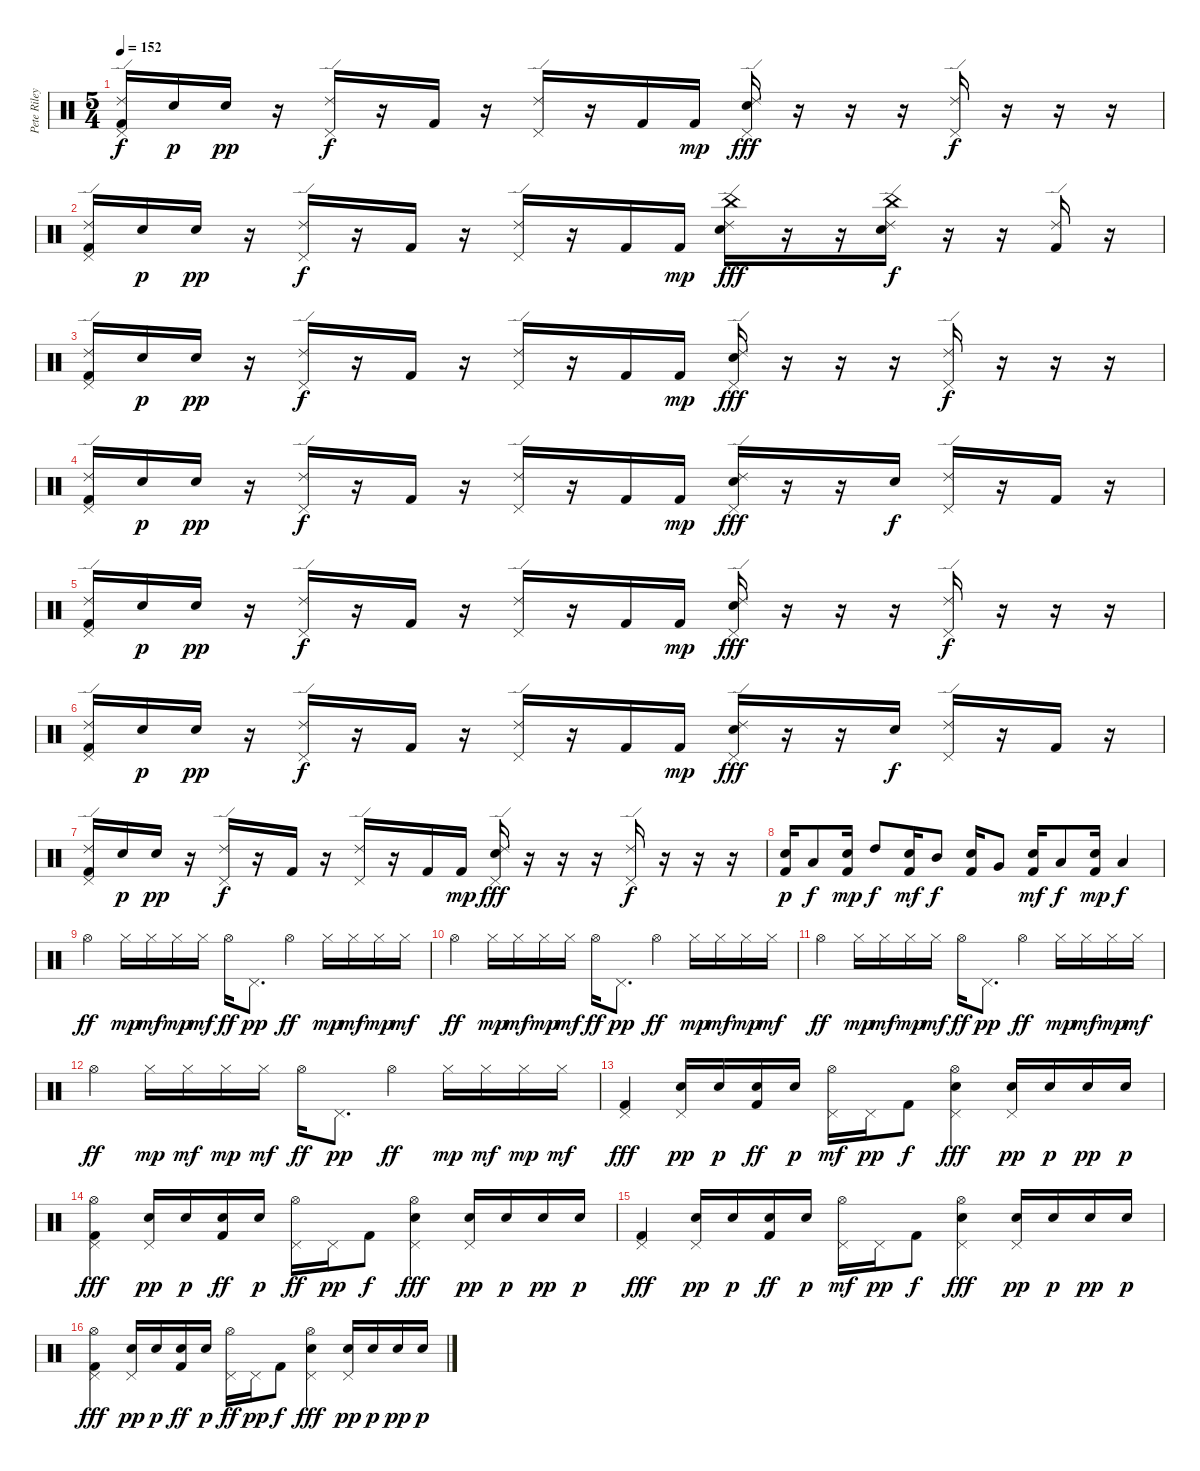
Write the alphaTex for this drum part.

\track ("Pete Riley" "Pete Riley") {instrument percussion}
\staff {score}
\articulation defaults
\ts (5 4)
\tempo 152
\clef neutral
\ks c
("Pedal Hi-Hat (hit)" "Ride (edge) 2" "Kick (hit) 2").16{dy f} "Electric Snare (hit)".16{dy p} "Electric Snare (hit)".16{dy pp} r.16 ("Pedal Hi-Hat (hit)" "Ride (edge) 2").16{dy f} r.16 "Kick (hit) 2".16 r.16 ("Pedal Hi-Hat (hit)" "Ride (edge) 2").16 r.16 "Kick (hit) 2".16 "Kick (hit) 2".16{dy mp} ("Pedal Hi-Hat (hit)" "Ride (edge) 2" "Electric Snare (hit)").16{dy fff} r.16 r.16 r.16 ("Pedal Hi-Hat (hit)" "Ride (edge) 2").16{dy f} r.16 r.16 r.16 |
("Pedal Hi-Hat (hit)" "Ride (edge) 2" "Kick (hit) 2").16 "Electric Snare (hit)".16{dy p} "Electric Snare (hit)".16{dy pp} r.16 ("Pedal Hi-Hat (hit)" "Ride (edge) 2").16{dy f} r.16 "Kick (hit) 2".16 r.16 ("Pedal Hi-Hat (hit)" "Ride (edge) 2").16 r.16 "Kick (hit) 2".16 "Kick (hit) 2".16{dy mp} ("China (hit)" "Ride (edge) 2" "Electric Snare (hit)").16{dy fff} r.16 r.16 ("China (hit)" "Ride (edge) 2" "Electric Snare (hit)").16{dy f} r.16 r.16 ("Ride (edge) 2" "Kick (hit) 2").16 r.16 |
("Pedal Hi-Hat (hit)" "Ride (edge) 2" "Kick (hit) 2").16 "Electric Snare (hit)".16{dy p} "Electric Snare (hit)".16{dy pp} r.16 ("Pedal Hi-Hat (hit)" "Ride (edge) 2").16{dy f} r.16 "Kick (hit) 2".16 r.16 ("Pedal Hi-Hat (hit)" "Ride (edge) 2").16 r.16 "Kick (hit) 2".16 "Kick (hit) 2".16{dy mp} ("Pedal Hi-Hat (hit)" "Ride (edge) 2" "Electric Snare (hit)").16{dy fff} r.16 r.16 r.16 ("Pedal Hi-Hat (hit)" "Ride (edge) 2").16{dy f} r.16 r.16 r.16 |
("Pedal Hi-Hat (hit)" "Ride (edge) 2" "Kick (hit) 2").16 "Electric Snare (hit)".16{dy p} "Electric Snare (hit)".16{dy pp} r.16 ("Pedal Hi-Hat (hit)" "Ride (edge) 2").16{dy f} r.16 "Kick (hit) 2".16 r.16 ("Pedal Hi-Hat (hit)" "Ride (edge) 2").16 r.16 "Kick (hit) 2".16 "Kick (hit) 2".16{dy mp} ("Pedal Hi-Hat (hit)" "Ride (edge) 2" "Electric Snare (hit)").16{dy fff} r.16 r.16 "Electric Snare (hit)".16{dy f} ("Pedal Hi-Hat (hit)" "Ride (edge) 2").16 r.16 "Kick (hit) 2".16 r.16 |
("Pedal Hi-Hat (hit)" "Ride (edge) 2" "Kick (hit) 2").16 "Electric Snare (hit)".16{dy p} "Electric Snare (hit)".16{dy pp} r.16 ("Pedal Hi-Hat (hit)" "Ride (edge) 2").16{dy f} r.16 "Kick (hit) 2".16 r.16 ("Pedal Hi-Hat (hit)" "Ride (edge) 2").16 r.16 "Kick (hit) 2".16 "Kick (hit) 2".16{dy mp} ("Pedal Hi-Hat (hit)" "Ride (edge) 2" "Electric Snare (hit)").16{dy fff} r.16 r.16 r.16 ("Pedal Hi-Hat (hit)" "Ride (edge) 2").16{dy f} r.16 r.16 r.16 |
("Pedal Hi-Hat (hit)" "Ride (edge) 2" "Kick (hit) 2").16 "Electric Snare (hit)".16{dy p} "Electric Snare (hit)".16{dy pp} r.16 ("Pedal Hi-Hat (hit)" "Ride (edge) 2").16{dy f} r.16 "Kick (hit) 2".16 r.16 ("Pedal Hi-Hat (hit)" "Ride (edge) 2").16 r.16 "Kick (hit) 2".16 "Kick (hit) 2".16{dy mp} ("Pedal Hi-Hat (hit)" "Ride (edge) 2" "Electric Snare (hit)").16{dy fff} r.16 r.16 "Electric Snare (hit)".16{dy f} ("Pedal Hi-Hat (hit)" "Ride (edge) 2").16 r.16 "Kick (hit) 2".16 r.16 |
("Pedal Hi-Hat (hit)" "Ride (edge) 2" "Kick (hit) 2").16 "Electric Snare (hit)".16{dy p} "Electric Snare (hit)".16{dy pp} r.16 ("Pedal Hi-Hat (hit)" "Ride (edge) 2").16{dy f} r.16 "Kick (hit) 2".16 r.16 ("Pedal Hi-Hat (hit)" "Ride (edge) 2").16 r.16 "Kick (hit) 2".16 "Kick (hit) 2".16{dy mp} ("Pedal Hi-Hat (hit)" "Ride (edge) 2" "Electric Snare (hit)").16{dy fff} r.16 r.16 r.16 ("Pedal Hi-Hat (hit)" "Ride (edge) 2").16{dy f} r.16 r.16 r.16 |
("Electric Snare (hit)" "Kick (hit) 2").16{dy p} "Low Tom (hit)".8{dy f} ("Electric Snare (hit)" "Kick (hit) 2").16{dy mp} "High Tom (hit)".8{dy f} ("Electric Snare (hit)" "Kick (hit) 2").16{dy mf} "Mid Tom (hit)".8{dy f} ("Electric Snare (hit)" "Kick (hit) 2").16 "Very Low Tom (hit)".8 ("Electric Snare (hit)" "Kick (hit) 2").16{dy mf} "Low Tom (hit)".8{dy f} ("Electric Snare (hit)" "Kick (hit) 2").16{dy mp} "Low Floor Tom (hit)".4{dy f} |
"Hi-Hat (open)".4{dy ff} "Hi-Hat (closed)".16{dy mp} "Hi-Hat (closed)".16{dy mf} "Hi-Hat (closed)".16{dy mp} "Hi-Hat (closed)".16{dy mf} "Hi-Hat (open)".16{dy ff} "Pedal Hi-Hat (hit)".8{d dy pp} "Hi-Hat (open)".4{dy ff} "Hi-Hat (closed)".16{dy mp} "Hi-Hat (closed)".16{dy mf} "Hi-Hat (closed)".16{dy mp} "Hi-Hat (closed)".16{dy mf} |
"Hi-Hat (open)".4{dy ff} "Hi-Hat (closed)".16{dy mp} "Hi-Hat (closed)".16{dy mf} "Hi-Hat (closed)".16{dy mp} "Hi-Hat (closed)".16{dy mf} "Hi-Hat (open)".16{dy ff} "Pedal Hi-Hat (hit)".8{d dy pp} "Hi-Hat (open)".4{dy ff} "Hi-Hat (closed)".16{dy mp} "Hi-Hat (closed)".16{dy mf} "Hi-Hat (closed)".16{dy mp} "Hi-Hat (closed)".16{dy mf} |
"Hi-Hat (open)".4{dy ff} "Hi-Hat (closed)".16{dy mp} "Hi-Hat (closed)".16{dy mf} "Hi-Hat (closed)".16{dy mp} "Hi-Hat (closed)".16{dy mf} "Hi-Hat (open)".16{dy ff} "Pedal Hi-Hat (hit)".8{d dy pp} "Hi-Hat (open)".4{dy ff} "Hi-Hat (closed)".16{dy mp} "Hi-Hat (closed)".16{dy mf} "Hi-Hat (closed)".16{dy mp} "Hi-Hat (closed)".16{dy mf} |
"Hi-Hat (open)".4{dy ff} "Hi-Hat (closed)".16{dy mp} "Hi-Hat (closed)".16{dy mf} "Hi-Hat (closed)".16{dy mp} "Hi-Hat (closed)".16{dy mf} "Hi-Hat (open)".16{dy ff} "Pedal Hi-Hat (hit)".8{d dy pp} "Hi-Hat (open)".4{dy ff} "Hi-Hat (closed)".16{dy mp} "Hi-Hat (closed)".16{dy mf} "Hi-Hat (closed)".16{dy mp} "Hi-Hat (closed)".16{dy mf} |
("Pedal Hi-Hat (hit)" "Kick (hit) 2").4{dy fff} ("Pedal Hi-Hat (hit)" "Electric Snare (hit)").16{dy pp} "Electric Snare (hit)".16{dy p} ("Electric Snare (hit)" "Kick (hit) 2").16{dy ff} "Electric Snare (hit)".16{dy p} ("Pedal Hi-Hat (hit)" "Hi-Hat (open)").16{dy mf} "Pedal Hi-Hat (hit)".16{dy pp} "Kick (hit) 2".8{dy f} ("Pedal Hi-Hat (hit)" "Hi-Hat (open)" "Electric Snare (hit)").4{dy fff} ("Pedal Hi-Hat (hit)" "Electric Snare (hit)").16{dy pp} "Electric Snare (hit)".16{dy p} "Electric Snare (hit)".16{dy pp} "Electric Snare (hit)".16{dy p} |
("Pedal Hi-Hat (hit)" "Hi-Hat (open)" "Kick (hit) 2").4{dy fff} ("Pedal Hi-Hat (hit)" "Electric Snare (hit)").16{dy pp} "Electric Snare (hit)".16{dy p} ("Electric Snare (hit)" "Kick (hit) 2").16{dy ff} "Electric Snare (hit)".16{dy p} ("Pedal Hi-Hat (hit)" "Hi-Hat (open)").16{dy ff} "Pedal Hi-Hat (hit)".16{dy pp} "Kick (hit) 2".8{dy f} ("Pedal Hi-Hat (hit)" "Hi-Hat (open)" "Electric Snare (hit)").4{dy fff} ("Pedal Hi-Hat (hit)" "Electric Snare (hit)").16{dy pp} "Electric Snare (hit)".16{dy p} "Electric Snare (hit)".16{dy pp} "Electric Snare (hit)".16{dy p} |
("Pedal Hi-Hat (hit)" "Kick (hit) 2").4{dy fff} ("Pedal Hi-Hat (hit)" "Electric Snare (hit)").16{dy pp} "Electric Snare (hit)".16{dy p} ("Electric Snare (hit)" "Kick (hit) 2").16{dy ff} "Electric Snare (hit)".16{dy p} ("Pedal Hi-Hat (hit)" "Hi-Hat (open)").16{dy mf} "Pedal Hi-Hat (hit)".16{dy pp} "Kick (hit) 2".8{dy f} ("Pedal Hi-Hat (hit)" "Hi-Hat (open)" "Electric Snare (hit)").4{dy fff} ("Pedal Hi-Hat (hit)" "Electric Snare (hit)").16{dy pp} "Electric Snare (hit)".16{dy p} "Electric Snare (hit)".16{dy pp} "Electric Snare (hit)".16{dy p} |
("Pedal Hi-Hat (hit)" "Hi-Hat (open)" "Kick (hit) 2").4{dy fff} ("Pedal Hi-Hat (hit)" "Electric Snare (hit)").16{dy pp} "Electric Snare (hit)".16{dy p} ("Electric Snare (hit)" "Kick (hit) 2").16{dy ff} "Electric Snare (hit)".16{dy p} ("Pedal Hi-Hat (hit)" "Hi-Hat (open)").16{dy ff} "Pedal Hi-Hat (hit)".16{dy pp} "Kick (hit) 2".8{dy f} ("Pedal Hi-Hat (hit)" "Hi-Hat (open)" "Electric Snare (hit)").4{dy fff} ("Pedal Hi-Hat (hit)" "Electric Snare (hit)").16{dy pp} "Electric Snare (hit)".16{dy p} "Electric Snare (hit)".16{dy pp} "Electric Snare (hit)".16{dy p}
